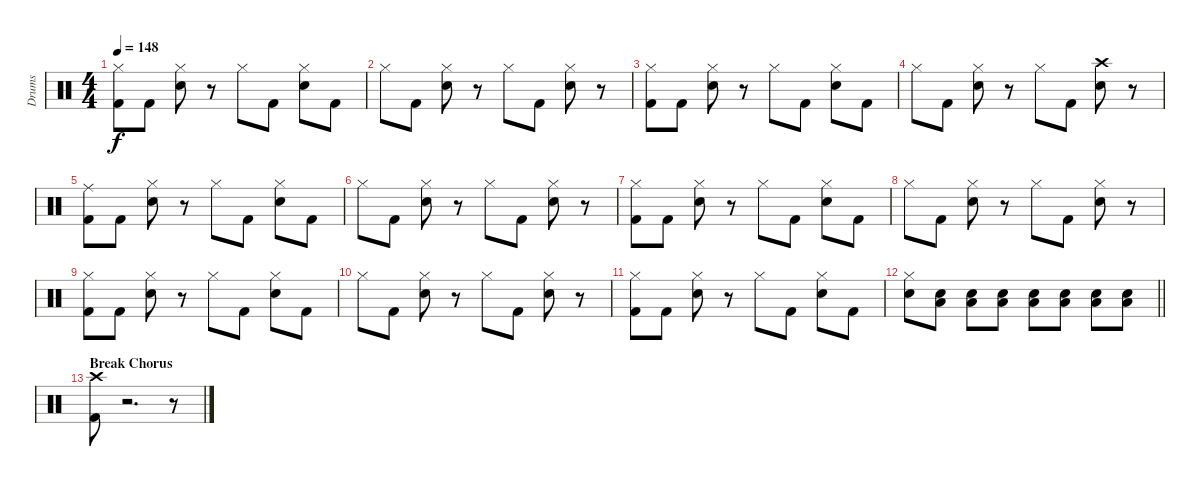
\track ("Drums" "Drums") {instrument percussion}
\staff {score}
\articulation defaults
\ts (4 4)
\tempo 148
\clef neutral
\ks c
("Hi-Hat (closed)" "Kick (hit) 2").8{dy f} "Kick (hit) 2".8 ("Hi-Hat (closed)" "Electric Snare (hit)").8 r.8 "Hi-Hat (closed)".8 "Kick (hit) 2".8 ("Hi-Hat (closed)" "Electric Snare (hit)").8 "Kick (hit) 2".8 |
"Hi-Hat (closed)".8 "Kick (hit) 2".8 ("Hi-Hat (closed)" "Electric Snare (hit)").8 r.8 "Hi-Hat (closed)".8 "Kick (hit) 2".8 ("Hi-Hat (closed)" "Electric Snare (hit)").8 r.8 |
("Hi-Hat (closed)" "Kick (hit) 2").8 "Kick (hit) 2".8 ("Hi-Hat (closed)" "Electric Snare (hit)").8 r.8 "Hi-Hat (closed)".8 "Kick (hit) 2".8 ("Hi-Hat (closed)" "Electric Snare (hit)").8 "Kick (hit) 2".8 |
"Hi-Hat (closed)".8 "Kick (hit) 2".8 ("Hi-Hat (closed)" "Electric Snare (hit)").8 r.8 "Hi-Hat (closed)".8 "Kick (hit) 2".8 ("Crash high (hit)" "Electric Snare (hit)").8 r.8 |
("Ride (middle)" "Kick (hit) 2").8 "Kick (hit) 2".8 ("Hi-Hat (closed)" "Electric Snare (hit)").8 r.8 "Hi-Hat (closed)".8 "Kick (hit) 2".8 ("Hi-Hat (closed)" "Electric Snare (hit)").8 "Kick (hit) 2".8 |
"Hi-Hat (closed)".8 "Kick (hit) 2".8 ("Hi-Hat (closed)" "Electric Snare (hit)").8 r.8 "Hi-Hat (closed)".8 "Kick (hit) 2".8 ("Hi-Hat (closed)" "Electric Snare (hit)").8 r.8 |
("Hi-Hat (closed)" "Kick (hit) 2").8 "Kick (hit) 2".8 ("Hi-Hat (closed)" "Electric Snare (hit)").8 r.8 "Hi-Hat (closed)".8 "Kick (hit) 2".8 ("Hi-Hat (closed)" "Electric Snare (hit)").8 "Kick (hit) 2".8 |
"Hi-Hat (closed)".8 "Kick (hit) 2".8 ("Hi-Hat (closed)" "Electric Snare (hit)").8 r.8 "Hi-Hat (closed)".8 "Kick (hit) 2".8 ("Hi-Hat (closed)" "Electric Snare (hit)").8 r.8 |
("Hi-Hat (closed)" "Kick (hit) 2").8 "Kick (hit) 2".8 ("Hi-Hat (closed)" "Electric Snare (hit)").8 r.8 "Hi-Hat (closed)".8 "Kick (hit) 2".8 ("Hi-Hat (closed)" "Electric Snare (hit)").8 "Kick (hit) 2".8 |
"Hi-Hat (closed)".8 "Kick (hit) 2".8 ("Hi-Hat (closed)" "Electric Snare (hit)").8 r.8 "Hi-Hat (closed)".8 "Kick (hit) 2".8 ("Hi-Hat (closed)" "Electric Snare (hit)").8 r.8 |
("Hi-Hat (closed)" "Kick (hit) 2").8 "Kick (hit) 2".8 ("Hi-Hat (closed)" "Electric Snare (hit)").8 r.8 "Hi-Hat (closed)".8 "Kick (hit) 2".8 ("Hi-Hat (closed)" "Electric Snare (hit)").8 "Kick (hit) 2".8 |
\barLineRight lightlight
("Hi-Hat (closed)" "Electric Snare (hit)").8 ("Low Floor Tom (hit)" "Electric Snare (hit)").8 ("Low Floor Tom (hit)" "Electric Snare (hit)").8 ("Low Floor Tom (hit)" "Electric Snare (hit)").8 ("Low Floor Tom (hit)" "Electric Snare (hit)").8 ("Low Floor Tom (hit)" "Electric Snare (hit)").8 ("Low Floor Tom (hit)" "Electric Snare (hit)").8 ("Low Floor Tom (hit)" "Electric Snare (hit)").8 |
\section ("" "Break Chorus")
("Crash high (hit)" "Kick (hit) 2").8 r.2{d} r.8
